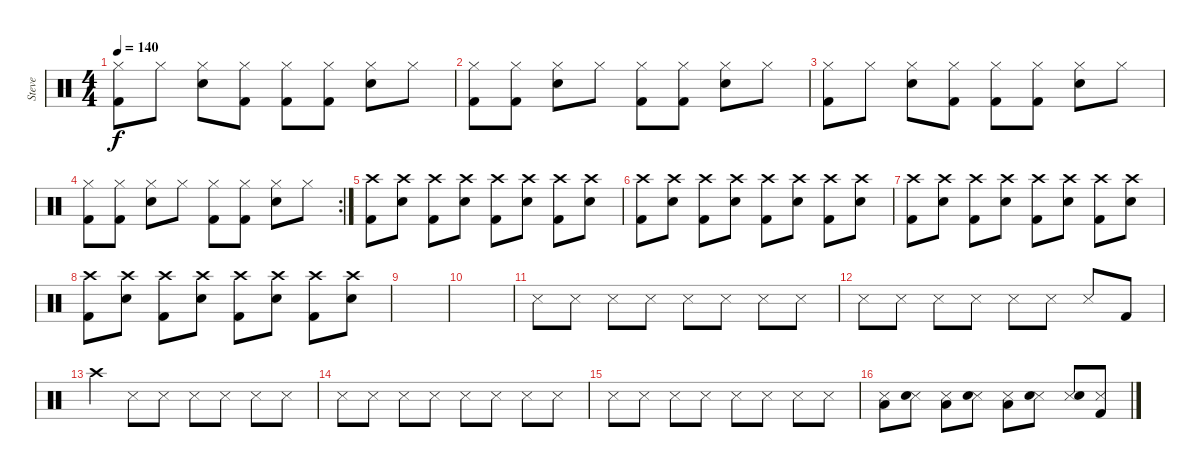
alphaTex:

\track ("Steve" "Steve") {instrument percussion}
\staff {score}
\articulation defaults
\ts (4 4)
\tempo 140
\clef neutral
\ks c
("Hi-Hat (closed)" "Kick (hit) 2").8{dy f} "Hi-Hat (closed)".8 ("Hi-Hat (closed)" "Snare (hit) 2").8 ("Hi-Hat (closed)" "Kick (hit) 2").8 ("Hi-Hat (closed)" "Kick (hit) 2").8 ("Hi-Hat (closed)" "Kick (hit) 2").8 ("Hi-Hat (closed)" "Snare (hit) 2").8 "Hi-Hat (closed)".8 |
("Hi-Hat (closed)" "Kick (hit) 2").8 ("Hi-Hat (closed)" "Kick (hit) 2").8 ("Hi-Hat (closed)" "Snare (hit) 2").8 "Hi-Hat (closed)".8 ("Hi-Hat (closed)" "Kick (hit) 2").8 ("Hi-Hat (closed)" "Kick (hit) 2").8 ("Hi-Hat (closed)" "Snare (hit) 2").8 "Hi-Hat (closed)".8 |
("Hi-Hat (closed)" "Kick (hit) 2").8 "Hi-Hat (closed)".8 ("Hi-Hat (closed)" "Snare (hit) 2").8 ("Hi-Hat (closed)" "Kick (hit) 2").8 ("Hi-Hat (closed)" "Kick (hit) 2").8 ("Hi-Hat (closed)" "Kick (hit) 2").8 ("Hi-Hat (closed)" "Snare (hit) 2").8 "Hi-Hat (closed)".8 |
\rc 2
("Hi-Hat (closed)" "Kick (hit) 2").8 ("Hi-Hat (closed)" "Kick (hit) 2").8 ("Hi-Hat (closed)" "Snare (hit) 2").8 "Hi-Hat (closed)".8 ("Hi-Hat (closed)" "Kick (hit) 2").8 ("Hi-Hat (closed)" "Kick (hit) 2").8 ("Hi-Hat (closed)" "Snare (hit) 2").8 "Hi-Hat (closed)".8 |
("Crash high (hit)" "Kick (hit) 2").8 ("Crash high (hit)" "Snare (hit) 2").8 ("Crash high (hit)" "Kick (hit) 2").8 ("Crash high (hit)" "Snare (hit) 2").8 ("Crash high (hit)" "Kick (hit) 2").8 ("Crash high (hit)" "Snare (hit) 2").8 ("Crash high (hit)" "Kick (hit) 2").8 ("Crash high (hit)" "Snare (hit) 2").8 |
("Crash high (hit)" "Kick (hit) 2").8 ("Crash high (hit)" "Snare (hit) 2").8 ("Crash high (hit)" "Kick (hit) 2").8 ("Crash high (hit)" "Snare (hit) 2").8 ("Crash high (hit)" "Kick (hit) 2").8 ("Crash high (hit)" "Snare (hit) 2").8 ("Crash high (hit)" "Kick (hit) 2").8 ("Crash high (hit)" "Snare (hit) 2").8 |
("Crash high (hit)" "Kick (hit) 2").8 ("Crash high (hit)" "Snare (hit) 2").8 ("Crash high (hit)" "Kick (hit) 2").8 ("Crash high (hit)" "Snare (hit) 2").8 ("Crash high (hit)" "Kick (hit) 2").8 ("Crash high (hit)" "Snare (hit) 2").8 ("Crash high (hit)" "Kick (hit) 2").8 ("Crash high (hit)" "Snare (hit) 2").8 |
("Crash high (hit)" "Kick (hit) 2").8 ("Crash high (hit)" "Snare (hit) 2").8 ("Crash high (hit)" "Kick (hit) 2").8 ("Crash high (hit)" "Snare (hit) 2").8 ("Crash high (hit)" "Kick (hit) 2").8 ("Crash high (hit)" "Snare (hit) 2").8 ("Crash high (hit)" "Kick (hit) 2").8 ("Crash high (hit)" "Snare (hit) 2").8 |
|
|
"Metronome (hit)".8 "Metronome (hit)".8 "Metronome (hit)".8 "Metronome (hit)".8 "Metronome (hit)".8 "Metronome (hit)".8 "Metronome (hit)".8 "Metronome (hit)".8 |
"Metronome (hit)".8 "Metronome (hit)".8 "Metronome (hit)".8 "Metronome (hit)".8 "Metronome (hit)".8 "Metronome (hit)".8 "Metronome (hit)".8 "Kick (hit) 2".8 |
"Crash high (hit)".4 "Metronome (hit)".8 "Metronome (hit)".8 "Metronome (hit)".8 "Metronome (hit)".8 "Metronome (hit)".8 "Metronome (hit)".8 |
"Metronome (hit)".8 "Metronome (hit)".8 "Metronome (hit)".8 "Metronome (hit)".8 "Metronome (hit)".8 "Metronome (hit)".8 "Metronome (hit)".8 "Metronome (hit)".8 |
"Metronome (hit)".8 "Metronome (hit)".8 "Metronome (hit)".8 "Metronome (hit)".8 "Metronome (hit)".8 "Metronome (hit)".8 "Metronome (hit)".8 "Metronome (hit)".8 |
("Metronome (hit)" "Low Floor Tom (hit)").8 ("Metronome (hit)" "Snare (hit) 2").8 ("Metronome (hit)" "Low Floor Tom (hit)").8 ("Metronome (hit)" "Snare (hit) 2").8 ("Metronome (hit)" "Low Floor Tom (hit)").8 ("Metronome (hit)" "Snare (hit) 2").8 ("Metronome (hit)" "Snare (hit) 2").8 ("Metronome (hit)" "Kick (hit) 2").8
